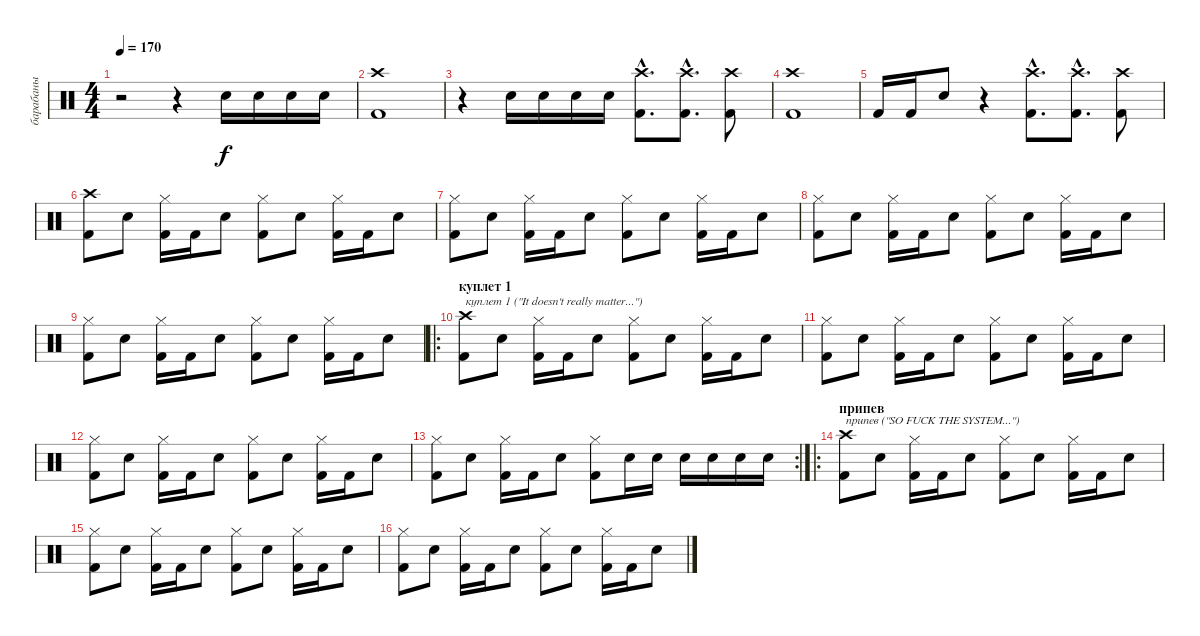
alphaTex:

\track ("барабаны" "барабаны") {instrument percussion}
\staff {score}
\articulation defaults
\ts (4 4)
\tempo 170
\clef neutral
\ks c
r.2{dy f} r.4 "Snare (hit) 2".16 "Snare (hit) 2".16 "Snare (hit) 2".16 "Snare (hit) 2".16 |
("Crash high (hit)" "Kick (hit) 2").1 |
r.4 "Snare (hit) 2".16 "Snare (hit) 2".16 "Snare (hit) 2".16 "Snare (hit) 2".16 ("Crash high (hit)"{hac} "Kick (hit) 2"{hac}).8{d} ("Crash high (hit)"{hac} "Kick (hit) 2"{hac}).8{d} ("Crash high (hit)" "Kick (hit) 2").8 |
("Crash high (hit)" "Kick (hit) 2").1 |
"Kick (hit) 2".16 "Kick (hit) 2".16 "Snare (hit) 2".8 r.4 ("Crash high (hit)"{hac} "Kick (hit) 2"{hac}).8{d} ("Crash high (hit)"{hac} "Kick (hit) 2"{hac}).8{d} ("Crash high (hit)" "Kick (hit) 2").8 |
("Crash high (hit)" "Kick (hit) 2").8 "Snare (hit) 2".8 ("Hi-Hat (closed)" "Kick (hit) 2").16 "Kick (hit) 2".16 "Snare (hit) 2".8 ("Hi-Hat (closed)" "Kick (hit) 2").8 "Snare (hit) 2".8 ("Hi-Hat (closed)" "Kick (hit) 2").16 "Kick (hit) 2".16 "Snare (hit) 2".8 |
("Hi-Hat (closed)" "Kick (hit) 2").8 "Snare (hit) 2".8 ("Hi-Hat (closed)" "Kick (hit) 2").16 "Kick (hit) 2".16 "Snare (hit) 2".8 ("Hi-Hat (closed)" "Kick (hit) 2").8 "Snare (hit) 2".8 ("Hi-Hat (closed)" "Kick (hit) 2").16 "Kick (hit) 2".16 "Snare (hit) 2".8 |
("Hi-Hat (closed)" "Kick (hit) 2").8 "Snare (hit) 2".8 ("Hi-Hat (closed)" "Kick (hit) 2").16 "Kick (hit) 2".16 "Snare (hit) 2".8 ("Hi-Hat (closed)" "Kick (hit) 2").8 "Snare (hit) 2".8 ("Hi-Hat (closed)" "Kick (hit) 2").16 "Kick (hit) 2".16 "Snare (hit) 2".8 |
("Hi-Hat (closed)" "Kick (hit) 2").8 "Snare (hit) 2".8 ("Hi-Hat (closed)" "Kick (hit) 2").16 "Kick (hit) 2".16 "Snare (hit) 2".8 ("Hi-Hat (closed)" "Kick (hit) 2").8 "Snare (hit) 2".8 ("Hi-Hat (closed)" "Kick (hit) 2").16 "Kick (hit) 2".16 "Snare (hit) 2".8 |
\ro
\section ("" "куплет 1")
("Crash high (hit)" "Kick (hit) 2").8{txt "куплет 1 (\"It doesn't really matter...\")"} "Snare (hit) 2".8 ("Hi-Hat (closed)" "Kick (hit) 2").16 "Kick (hit) 2".16 "Snare (hit) 2".8 ("Hi-Hat (closed)" "Kick (hit) 2").8 "Snare (hit) 2".8 ("Hi-Hat (closed)" "Kick (hit) 2").16 "Kick (hit) 2".16 "Snare (hit) 2".8 |
("Hi-Hat (closed)" "Kick (hit) 2").8 "Snare (hit) 2".8 ("Hi-Hat (closed)" "Kick (hit) 2").16 "Kick (hit) 2".16 "Snare (hit) 2".8 ("Hi-Hat (closed)" "Kick (hit) 2").8 "Snare (hit) 2".8 ("Hi-Hat (closed)" "Kick (hit) 2").16 "Kick (hit) 2".16 "Snare (hit) 2".8 |
("Hi-Hat (closed)" "Kick (hit) 2").8 "Snare (hit) 2".8 ("Hi-Hat (closed)" "Kick (hit) 2").16 "Kick (hit) 2".16 "Snare (hit) 2".8 ("Hi-Hat (closed)" "Kick (hit) 2").8 "Snare (hit) 2".8 ("Hi-Hat (closed)" "Kick (hit) 2").16 "Kick (hit) 2".16 "Snare (hit) 2".8 |
\rc 2
("Hi-Hat (closed)" "Kick (hit) 2").8 "Snare (hit) 2".8 ("Hi-Hat (closed)" "Kick (hit) 2").16 "Kick (hit) 2".16 "Snare (hit) 2".8 ("Hi-Hat (closed)" "Kick (hit) 2").8 "Snare (hit) 2".16 "Snare (hit) 2".16 "Snare (hit) 2".16 "Snare (hit) 2".16 "Snare (hit) 2".16 "Snare (hit) 2".16 |
\ro
\section ("" "припев")
("Crash high (hit)" "Kick (hit) 2").8{txt "припев (\"SO FUCK THE SYSTEM...\")"} "Snare (hit) 2".8 ("Hi-Hat (closed)" "Kick (hit) 2").16 "Kick (hit) 2".16 "Snare (hit) 2".8 ("Hi-Hat (closed)" "Kick (hit) 2").8 "Snare (hit) 2".8 ("Hi-Hat (closed)" "Kick (hit) 2").16 "Kick (hit) 2".16 "Snare (hit) 2".8 |
("Hi-Hat (closed)" "Kick (hit) 2").8 "Snare (hit) 2".8 ("Hi-Hat (closed)" "Kick (hit) 2").16 "Kick (hit) 2".16 "Snare (hit) 2".8 ("Hi-Hat (closed)" "Kick (hit) 2").8 "Snare (hit) 2".8 ("Hi-Hat (closed)" "Kick (hit) 2").16 "Kick (hit) 2".16 "Snare (hit) 2".8 |
("Hi-Hat (closed)" "Kick (hit) 2").8 "Snare (hit) 2".8 ("Hi-Hat (closed)" "Kick (hit) 2").16 "Kick (hit) 2".16 "Snare (hit) 2".8 ("Hi-Hat (closed)" "Kick (hit) 2").8 "Snare (hit) 2".8 ("Hi-Hat (closed)" "Kick (hit) 2").16 "Kick (hit) 2".16 "Snare (hit) 2".8
